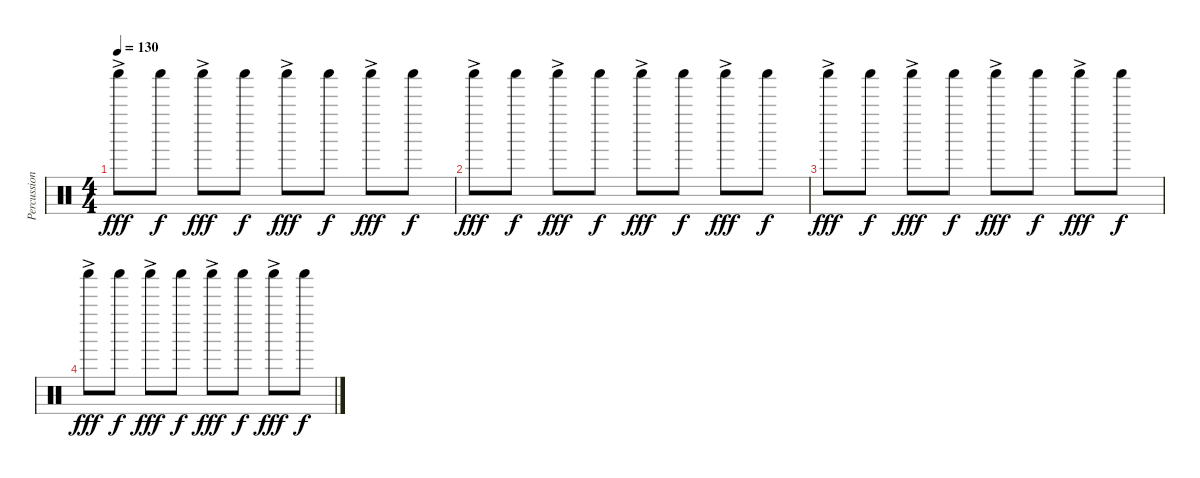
\track ("Percussion" "Percussion") {instrument percussion}
\staff {score}
\articulation defaults
\ts (4 4)
\tempo 130
\clef neutral
\ks c "Shaker (hit)"{ac}.8{dy fff} "Shaker (hit)".8{dy f} "Shaker (hit)"{ac}.8{dy fff} "Shaker (hit)".8{dy f} "Shaker (hit)"{ac}.8{dy fff} "Shaker (hit)".8{dy f} "Shaker (hit)"{ac}.8{dy fff} "Shaker (hit)".8{dy f}
|
"Shaker (hit)"{ac}.8{dy fff} "Shaker (hit)".8{dy f} "Shaker (hit)"{ac}.8{dy fff} "Shaker (hit)".8{dy f} "Shaker (hit)"{ac}.8{dy fff} "Shaker (hit)".8{dy f} "Shaker (hit)"{ac}.8{dy fff} "Shaker (hit)".8{dy f} |
"Shaker (hit)"{ac}.8{dy fff} "Shaker (hit)".8{dy f} "Shaker (hit)"{ac}.8{dy fff} "Shaker (hit)".8{dy f} "Shaker (hit)"{ac}.8{dy fff} "Shaker (hit)".8{dy f} "Shaker (hit)"{ac}.8{dy fff} "Shaker (hit)".8{dy f} |
"Shaker (hit)"{ac}.8{dy fff} "Shaker (hit)".8{dy f} "Shaker (hit)"{ac}.8{dy fff} "Shaker (hit)".8{dy f} "Shaker (hit)"{ac}.8{dy fff} "Shaker (hit)".8{dy f} "Shaker (hit)"{ac}.8{dy fff} "Shaker (hit)".8{dy f}
